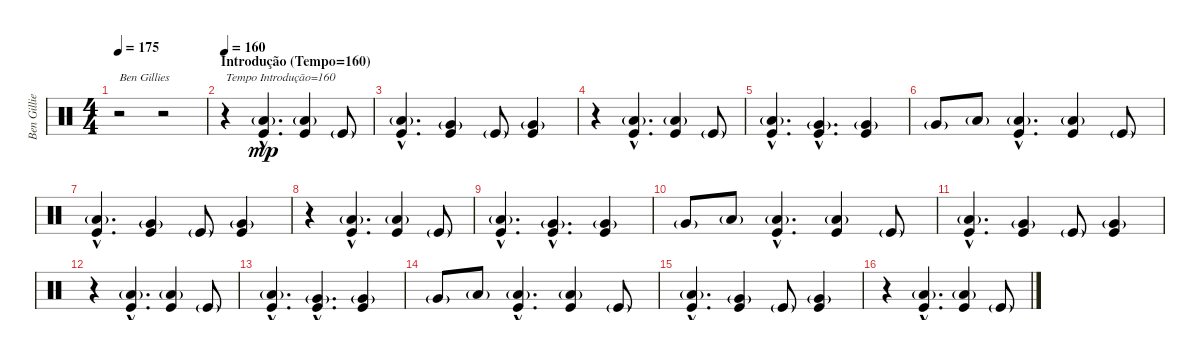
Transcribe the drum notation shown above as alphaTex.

\track ("Ben Gillies" "Ben Gillie") {instrument percussion}
\staff {score}
\articulation defaults
\ts (4 4)
\tempo 175
\clef neutral
\ks c
r.2{txt "Ben Gillies" dy mp} r.2 |
\section ("" "Introdução (Tempo=160)")
\tempo 160
r.4{txt "Tempo Introdução=160"} ("Kick (hit)"{hac} "Low Floor Tom (hit)"{g hac}).4{d} ("Kick (hit)" "Low Floor Tom (hit)"{g}).4 "Kick (hit)"{g}.8 |
("Kick (hit)"{hac} "Low Floor Tom (hit)"{g hac}).4{d} ("Kick (hit)" "Very Low Tom (hit)"{g}).4 "Kick (hit)"{g}.8 ("Kick (hit)" "Very Low Tom (hit)"{g}).4 |
r.4 ("Kick (hit)"{hac} "Low Floor Tom (hit)"{g hac}).4{d} ("Kick (hit)" "Low Floor Tom (hit)"{g}).4 "Kick (hit)"{g}.8 |
("Kick (hit)"{hac} "Low Floor Tom (hit)"{g hac}).4{d} ("Kick (hit)"{hac} "Very Low Tom (hit)"{g hac}).4{d} ("Kick (hit)" "Very Low Tom (hit)"{g}).4 |
"Very Low Tom (hit)"{g}.8 "Low Floor Tom (hit)"{g}.8 ("Kick (hit)"{hac} "Low Floor Tom (hit)"{g hac}).4{d} ("Kick (hit)" "Low Floor Tom (hit)"{g}).4 "Kick (hit)"{g}.8 |
("Kick (hit)"{hac} "Low Floor Tom (hit)"{g hac}).4{d} ("Kick (hit)" "Very Low Tom (hit)"{g}).4 "Kick (hit)"{g}.8 ("Kick (hit)" "Very Low Tom (hit)"{g}).4 |
r.4 ("Kick (hit)"{hac} "Low Floor Tom (hit)"{g hac}).4{d} ("Kick (hit)" "Low Floor Tom (hit)"{g}).4 "Kick (hit)"{g}.8 |
("Kick (hit)"{hac} "Low Floor Tom (hit)"{g hac}).4{d} ("Kick (hit)"{hac} "Very Low Tom (hit)"{g hac}).4{d} ("Kick (hit)" "Very Low Tom (hit)"{g}).4 |
"Very Low Tom (hit)"{g}.8 "Low Floor Tom (hit)"{g}.8 ("Kick (hit)"{hac} "Low Floor Tom (hit)"{g hac}).4{d} ("Kick (hit)" "Low Floor Tom (hit)"{g}).4 "Kick (hit)"{g}.8 |
("Kick (hit)"{hac} "Low Floor Tom (hit)"{g hac}).4{d} ("Kick (hit)" "Very Low Tom (hit)"{g}).4 "Kick (hit)"{g}.8 ("Kick (hit)" "Very Low Tom (hit)"{g}).4 |
r.4 ("Kick (hit)"{hac} "Low Floor Tom (hit)"{g hac}).4{d} ("Kick (hit)" "Low Floor Tom (hit)"{g}).4 "Kick (hit)"{g}.8 |
("Kick (hit)"{hac} "Low Floor Tom (hit)"{g hac}).4{d} ("Kick (hit)"{hac} "Very Low Tom (hit)"{g hac}).4{d} ("Kick (hit)" "Very Low Tom (hit)"{g}).4 |
"Very Low Tom (hit)"{g}.8 "Low Floor Tom (hit)"{g}.8 ("Kick (hit)"{hac} "Low Floor Tom (hit)"{g hac}).4{d} ("Kick (hit)" "Low Floor Tom (hit)"{g}).4 "Kick (hit)"{g}.8 |
("Kick (hit)"{hac} "Low Floor Tom (hit)"{g hac}).4{d} ("Kick (hit)" "Very Low Tom (hit)"{g}).4 "Kick (hit)"{g}.8 ("Kick (hit)" "Very Low Tom (hit)"{g}).4 |
r.4 ("Kick (hit)"{hac} "Low Floor Tom (hit)"{g hac}).4{d} ("Kick (hit)" "Low Floor Tom (hit)"{g}).4 "Kick (hit)"{g}.8
